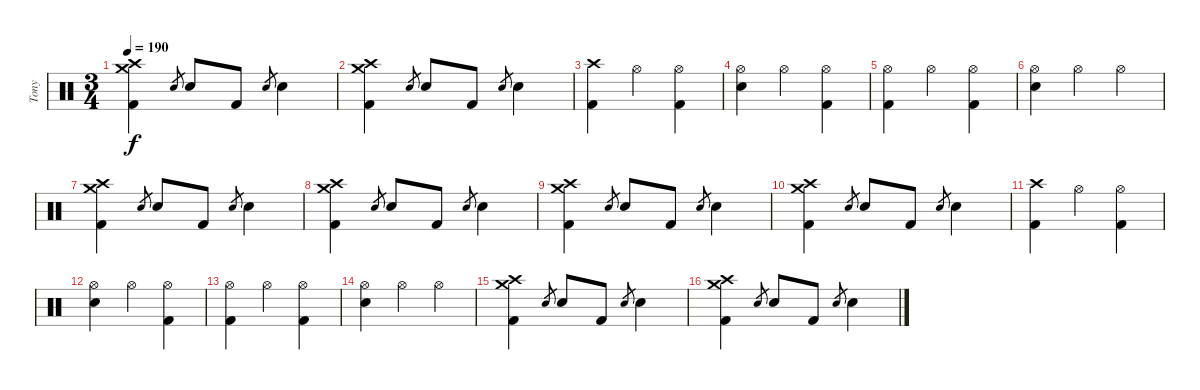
\track ("Tony" "Tony") {instrument percussion}
\staff {score}
\articulation defaults
\ts (3 4)
\tempo 190
\clef neutral
\ks c
("Crash high (hit)" "Crash medium (hit)" "Kick (hit) 2").4{dy f} "Snare (hit) 2".8{gr} "Snare (hit) 2".8 "Kick (hit) 2".8 "Snare (hit) 2".8{gr} "Snare (hit) 2".4 |
("Crash high (hit)" "Crash medium (hit)" "Kick (hit) 2").4 "Snare (hit) 2".8{gr} "Snare (hit) 2".8 "Kick (hit) 2".8 "Snare (hit) 2".8{gr} "Snare (hit) 2".4 |
("Crash high (hit)" "Kick (hit) 2").4 "Hi-Hat (open)".4 ("Hi-Hat (open)" "Kick (hit) 2").4 |
("Hi-Hat (open)" "Snare (hit) 2").4 "Hi-Hat (open)".4 ("Hi-Hat (open)" "Kick (hit) 2").4 |
("Hi-Hat (open)" "Kick (hit) 2").4 "Hi-Hat (open)".4 ("Hi-Hat (open)" "Kick (hit) 2").4 |
("Hi-Hat (open)" "Snare (hit) 2").4 "Hi-Hat (open)".4 "Hi-Hat (open)".4 |
("Crash high (hit)" "Crash medium (hit)" "Kick (hit) 2").4 "Snare (hit) 2".8{gr} "Snare (hit) 2".8 "Kick (hit) 2".8 "Snare (hit) 2".8{gr} "Snare (hit) 2".4 |
("Crash high (hit)" "Crash medium (hit)" "Kick (hit) 2").4 "Snare (hit) 2".8{gr} "Snare (hit) 2".8 "Kick (hit) 2".8 "Snare (hit) 2".8{gr} "Snare (hit) 2".4 |
("Crash high (hit)" "Crash medium (hit)" "Kick (hit) 2").4 "Snare (hit) 2".8{gr} "Snare (hit) 2".8 "Kick (hit) 2".8 "Snare (hit) 2".8{gr} "Snare (hit) 2".4 |
("Crash high (hit)" "Crash medium (hit)" "Kick (hit) 2").4 "Snare (hit) 2".8{gr} "Snare (hit) 2".8 "Kick (hit) 2".8 "Snare (hit) 2".8{gr} "Snare (hit) 2".4 |
("Crash high (hit)" "Kick (hit) 2").4 "Hi-Hat (open)".4 ("Hi-Hat (open)" "Kick (hit) 2").4 |
("Hi-Hat (open)" "Snare (hit) 2").4 "Hi-Hat (open)".4 ("Hi-Hat (open)" "Kick (hit) 2").4 |
("Hi-Hat (open)" "Kick (hit) 2").4 "Hi-Hat (open)".4 ("Hi-Hat (open)" "Kick (hit) 2").4 |
("Hi-Hat (open)" "Snare (hit) 2").4 "Hi-Hat (open)".4 "Hi-Hat (open)".4 |
("Crash high (hit)" "Crash medium (hit)" "Kick (hit) 2").4 "Snare (hit) 2".8{gr} "Snare (hit) 2".8 "Kick (hit) 2".8 "Snare (hit) 2".8{gr} "Snare (hit) 2".4 |
("Crash high (hit)" "Crash medium (hit)" "Kick (hit) 2").4 "Snare (hit) 2".8{gr} "Snare (hit) 2".8 "Kick (hit) 2".8 "Snare (hit) 2".8{gr} "Snare (hit) 2".4
